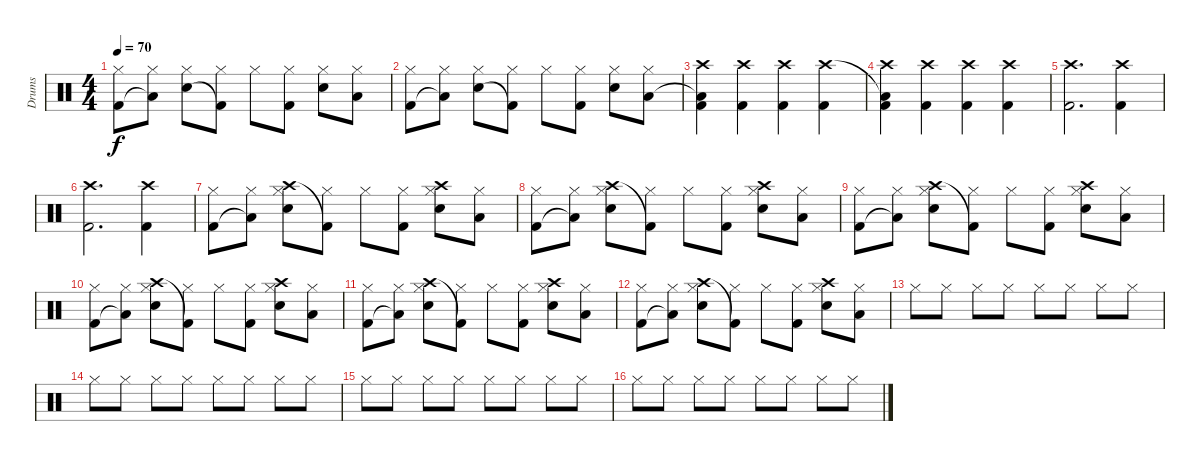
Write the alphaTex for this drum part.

\track ("Drums" "Drums") {instrument percussion}
\staff {score}
\articulation defaults
\ts (4 4)
\tempo 70
\clef neutral
\ks c
("Kick (hit) 2" "Hi-Hat (closed)").8{dy f} ("Low Floor Tom (hit)"{t} "Hi-Hat (closed)").8 ("Electric Snare (hit)" "Hi-Hat (closed)").8 ("Kick (hit) 2"{t} "Hi-Hat (closed)").8 "Hi-Hat (closed)".8 ("Kick (hit) 2" "Hi-Hat (closed)").8 ("Electric Snare (hit)" "Hi-Hat (closed)").8 ("Low Floor Tom (hit)" "Hi-Hat (closed)").8 |
("Kick (hit) 2" "Hi-Hat (closed)").8 ("Low Floor Tom (hit)"{t} "Hi-Hat (closed)").8 ("Electric Snare (hit)" "Hi-Hat (closed)").8 ("Kick (hit) 2"{t} "Hi-Hat (closed)").8 "Hi-Hat (closed)".8 ("Kick (hit) 2" "Hi-Hat (closed)").8 ("Electric Snare (hit)" "Hi-Hat (closed)").8 ("Low Floor Tom (hit)" "Hi-Hat (closed)").8 |
("Low Floor Tom (hit)"{t} "Crash high (hit)" "Kick (hit) 2").4 ("Crash high (hit)" "Kick (hit) 2").4 ("Crash high (hit)" "Kick (hit) 2").4 ("Crash high (hit)" "Kick (hit) 2").4 |
("Low Floor Tom (hit)"{t} "Crash high (hit)" "Kick (hit) 2").4 ("Crash high (hit)" "Kick (hit) 2").4 ("Crash high (hit)" "Kick (hit) 2").4 ("Crash high (hit)" "Kick (hit) 2").4 |
("Crash high (hit)" "Kick (hit) 2").2{d} ("Crash high (hit)" "Kick (hit) 2").4 |
("Crash high (hit)" "Kick (hit) 2").2{d} ("Crash high (hit)" "Kick (hit) 2").4 |
("Kick (hit) 2" "Hi-Hat (closed)").8 ("Low Floor Tom (hit)"{t} "Hi-Hat (closed)").8 ("Crash high (hit)" "Electric Snare (hit)" "Hi-Hat (closed)").8 ("Kick (hit) 2"{t} "Hi-Hat (closed)").8 "Hi-Hat (closed)".8 ("Kick (hit) 2" "Hi-Hat (closed)").8 ("Crash high (hit)" "Electric Snare (hit)" "Hi-Hat (closed)").8 ("Low Floor Tom (hit)" "Hi-Hat (closed)").8 |
("Kick (hit) 2" "Hi-Hat (closed)").8 ("Low Floor Tom (hit)"{t} "Hi-Hat (closed)").8 ("Crash high (hit)" "Electric Snare (hit)" "Hi-Hat (closed)").8 ("Kick (hit) 2"{t} "Hi-Hat (closed)").8 "Hi-Hat (closed)".8 ("Kick (hit) 2" "Hi-Hat (closed)").8 ("Crash high (hit)" "Electric Snare (hit)" "Hi-Hat (closed)").8 ("Low Floor Tom (hit)" "Hi-Hat (closed)").8 |
("Kick (hit) 2" "Hi-Hat (closed)").8 ("Low Floor Tom (hit)"{t} "Hi-Hat (closed)").8 ("Crash high (hit)" "Electric Snare (hit)" "Hi-Hat (closed)").8 ("Kick (hit) 2"{t} "Hi-Hat (closed)").8 "Hi-Hat (closed)".8 ("Kick (hit) 2" "Hi-Hat (closed)").8 ("Crash high (hit)" "Electric Snare (hit)" "Hi-Hat (closed)").8 ("Low Floor Tom (hit)" "Hi-Hat (closed)").8 |
("Kick (hit) 2" "Hi-Hat (closed)").8 ("Low Floor Tom (hit)"{t} "Hi-Hat (closed)").8 ("Crash high (hit)" "Electric Snare (hit)" "Hi-Hat (closed)").8 ("Kick (hit) 2"{t} "Hi-Hat (closed)").8 "Hi-Hat (closed)".8 ("Kick (hit) 2" "Hi-Hat (closed)").8 ("Crash high (hit)" "Electric Snare (hit)" "Hi-Hat (closed)").8 ("Low Floor Tom (hit)" "Hi-Hat (closed)").8 |
("Kick (hit) 2" "Hi-Hat (closed)").8 ("Low Floor Tom (hit)"{t} "Hi-Hat (closed)").8 ("Crash high (hit)" "Electric Snare (hit)" "Hi-Hat (closed)").8 ("Kick (hit) 2"{t} "Hi-Hat (closed)").8 "Hi-Hat (closed)".8 ("Kick (hit) 2" "Hi-Hat (closed)").8 ("Crash high (hit)" "Electric Snare (hit)" "Hi-Hat (closed)").8 ("Low Floor Tom (hit)" "Hi-Hat (closed)").8 |
("Kick (hit) 2" "Hi-Hat (closed)").8 ("Low Floor Tom (hit)"{t} "Hi-Hat (closed)").8 ("Crash high (hit)" "Electric Snare (hit)" "Hi-Hat (closed)").8 ("Kick (hit) 2"{t} "Hi-Hat (closed)").8 "Hi-Hat (closed)".8 ("Kick (hit) 2" "Hi-Hat (closed)").8 ("Crash high (hit)" "Electric Snare (hit)" "Hi-Hat (closed)").8 ("Low Floor Tom (hit)" "Hi-Hat (closed)").8 |
"Hi-Hat (closed)".8 "Hi-Hat (closed)".8 "Hi-Hat (closed)".8 "Hi-Hat (closed)".8 "Hi-Hat (closed)".8 "Hi-Hat (closed)".8 "Hi-Hat (closed)".8 "Hi-Hat (closed)".8 |
"Hi-Hat (closed)".8 "Hi-Hat (closed)".8 "Hi-Hat (closed)".8 "Hi-Hat (closed)".8 "Hi-Hat (closed)".8 "Hi-Hat (closed)".8 "Hi-Hat (closed)".8 "Hi-Hat (closed)".8 |
"Hi-Hat (closed)".8 "Hi-Hat (closed)".8 "Hi-Hat (closed)".8 "Hi-Hat (closed)".8 "Hi-Hat (closed)".8 "Hi-Hat (closed)".8 "Hi-Hat (closed)".8 "Hi-Hat (closed)".8 |
"Hi-Hat (closed)".8 "Hi-Hat (closed)".8 "Hi-Hat (closed)".8 "Hi-Hat (closed)".8 "Hi-Hat (closed)".8 "Hi-Hat (closed)".8 "Hi-Hat (closed)".8 "Hi-Hat (closed)".8
